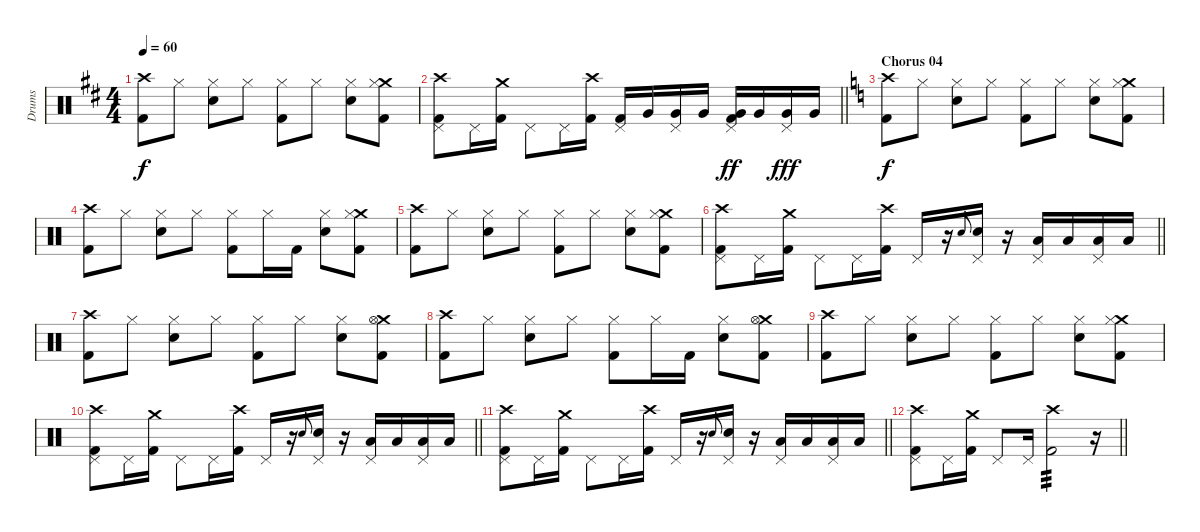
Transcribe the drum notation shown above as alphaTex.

\track ("Drums" "Drums") {instrument percussion}
\staff
\articulation defaults
\ts (4 4)
\tempo 60
\clef neutral
\ks d
("Crash high (hit)" "Kick (hit) 2").8{dy f} "Hi-Hat (closed)".8 ("Hi-Hat (closed)" "Snare (hit) 2").8 "Hi-Hat (closed)".8 ("Hi-Hat (closed)" "Kick (hit) 2").8 "Hi-Hat (closed)".8 ("Hi-Hat (closed)" "Snare (hit) 2").8 ("Crash medium (hit)" "Hi-Hat (closed)" "Kick (hit) 2").8 |
\barLineRight lightlight
("Crash high (hit)" "Pedal Hi-Hat (hit)" "Kick (hit) 2").8 "Pedal Hi-Hat (hit)".16 ("Crash medium (hit)" "Kick (hit) 2").16 "Pedal Hi-Hat (hit)".8 "Pedal Hi-Hat (hit)".16 ("Crash high (hit)" "Kick (hit) 2").16 ("Pedal Hi-Hat (hit)" "Kick (hit) 2").16 "Very Low Tom (hit)".16 ("Very Low Tom (hit)" "Pedal Hi-Hat (hit)").16 "Very Low Tom (hit)".16 ("Very Low Tom (hit)" "Pedal Hi-Hat (hit)" "Kick (hit) 2").16{dy ff} "Very Low Tom (hit)".16 ("Very Low Tom (hit)" "Pedal Hi-Hat (hit)").16{dy fff} "Very Low Tom (hit)".16 |
\section ("" "Chorus 04")
\ks c
("Crash high (hit)" "Kick (hit) 2").8{dy f} "Hi-Hat (closed)".8 ("Hi-Hat (closed)" "Snare (hit) 2").8 "Hi-Hat (closed)".8 ("Hi-Hat (closed)" "Kick (hit) 2").8 "Hi-Hat (closed)".8 ("Hi-Hat (closed)" "Snare (hit) 2").8 ("Crash medium (hit)" "Hi-Hat (closed)" "Kick (hit) 2").8 |
("Crash high (hit)" "Kick (hit) 2").8 "Hi-Hat (closed)".8 ("Hi-Hat (closed)" "Snare (hit) 2").8 "Hi-Hat (closed)".8 ("Hi-Hat (closed)" "Kick (hit) 2").8 "Hi-Hat (closed)".16 "Kick (hit) 2".16 ("Hi-Hat (closed)" "Snare (hit) 2").8 ("Crash medium (hit)" "Hi-Hat (closed)" "Kick (hit) 2").8 |
("Crash high (hit)" "Kick (hit) 2").8 "Hi-Hat (closed)".8 ("Hi-Hat (closed)" "Snare (hit) 2").8 "Hi-Hat (closed)".8 ("Hi-Hat (closed)" "Kick (hit) 2").8 "Hi-Hat (closed)".8 ("Hi-Hat (closed)" "Snare (hit) 2").8 ("Crash medium (hit)" "Hi-Hat (closed)" "Kick (hit) 2").8 |
\barLineRight lightlight
("Crash high (hit)" "Pedal Hi-Hat (hit)" "Kick (hit) 2").8 "Pedal Hi-Hat (hit)".16 ("Crash medium (hit)" "Kick (hit) 2").16 "Pedal Hi-Hat (hit)".8 "Pedal Hi-Hat (hit)".16 ("Crash high (hit)" "Kick (hit) 2").16 "Pedal Hi-Hat (hit)".16 r.16 "Snare (hit) 2".8{gr onbeat} ("Pedal Hi-Hat (hit)" "Snare (hit) 2").16 r.16 ("Low Tom (hit)" "Pedal Hi-Hat (hit)").16 "Low Tom (hit)".16 ("Low Tom (hit)" "Pedal Hi-Hat (hit)").16 "Low Tom (hit)".16 |
("Crash high (hit)" "Kick (hit) 2").8 "Hi-Hat (closed)".8 ("Hi-Hat (closed)" "Snare (hit) 2").8 "Hi-Hat (closed)".8 ("Hi-Hat (closed)" "Kick (hit) 2").8 "Hi-Hat (closed)".8 ("Hi-Hat (closed)" "Snare (hit) 2").8 ("Crash medium (hit)" "Hi-Hat (open)" "Kick (hit) 2").8 |
("Crash high (hit)" "Kick (hit) 2").8 "Hi-Hat (closed)".8 ("Hi-Hat (closed)" "Snare (hit) 2").8 "Hi-Hat (closed)".8 ("Hi-Hat (closed)" "Kick (hit) 2").8 "Hi-Hat (closed)".16 "Kick (hit) 2".16 ("Hi-Hat (closed)" "Snare (hit) 2").8 ("Crash medium (hit)" "Hi-Hat (open)" "Kick (hit) 2").8 |
("Crash high (hit)" "Kick (hit) 2").8 "Hi-Hat (closed)".8 ("Hi-Hat (closed)" "Snare (hit) 2").8 "Hi-Hat (closed)".8 ("Hi-Hat (closed)" "Kick (hit) 2").8 "Hi-Hat (closed)".8 ("Hi-Hat (closed)" "Snare (hit) 2").8 ("Crash medium (hit)" "Hi-Hat (closed)" "Kick (hit) 2").8 |
\barLineRight lightlight
("Crash high (hit)" "Pedal Hi-Hat (hit)" "Kick (hit) 2").8 "Pedal Hi-Hat (hit)".16 ("Crash medium (hit)" "Kick (hit) 2").16 "Pedal Hi-Hat (hit)".8 "Pedal Hi-Hat (hit)".16 ("Crash high (hit)" "Kick (hit) 2").16 "Pedal Hi-Hat (hit)".16 r.16 "Snare (hit) 2".8{gr onbeat} ("Pedal Hi-Hat (hit)" "Snare (hit) 2").16 r.16 ("Low Tom (hit)" "Pedal Hi-Hat (hit)").16 "Low Tom (hit)".16 ("Low Tom (hit)" "Pedal Hi-Hat (hit)").16 "Low Tom (hit)".16 |
\barLineRight lightlight
("Crash high (hit)" "Pedal Hi-Hat (hit)" "Kick (hit) 2").8 "Pedal Hi-Hat (hit)".16 ("Crash medium (hit)" "Kick (hit) 2").16 "Pedal Hi-Hat (hit)".8 "Pedal Hi-Hat (hit)".16 ("Crash high (hit)" "Kick (hit) 2").16 "Pedal Hi-Hat (hit)".16 r.16 "Snare (hit) 2".8{gr onbeat} ("Pedal Hi-Hat (hit)" "Snare (hit) 2").16 r.16 ("Low Tom (hit)" "Pedal Hi-Hat (hit)").16 "Low Tom (hit)".16 ("Low Tom (hit)" "Pedal Hi-Hat (hit)").16 "Low Tom (hit)".16 |
\barLineRight lightlight
("Crash high (hit)" "Pedal Hi-Hat (hit)" "Kick (hit) 2").8 "Pedal Hi-Hat (hit)".16 ("Crash medium (hit)" "Kick (hit) 2").16 "Pedal Hi-Hat (hit)".8 "Pedal Hi-Hat (hit)".16 ("Crash high (hit)" "Kick (hit) 2").2{tp 3 volume 8} r.16
